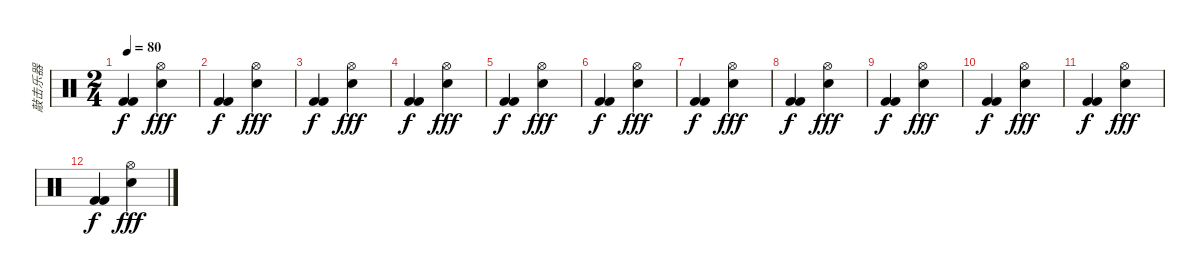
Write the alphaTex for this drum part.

\track ("敲击乐器" "敲击乐器") {instrument percussion}
\staff {score}
\articulation defaults
\ts (2 4)
\tempo 80
\clef neutral
\ks c
("Kick (hit) 2" "Kick (hit) 2").4{dy f} ("Hi-Hat (open)" "Snare (hit) 2").4{dy fff} |
("Kick (hit) 2" "Kick (hit) 2").4{dy f} ("Hi-Hat (open)" "Snare (hit) 2").4{dy fff} |
("Kick (hit) 2" "Kick (hit) 2").4{dy f} ("Hi-Hat (open)" "Snare (hit) 2").4{dy fff} |
("Kick (hit) 2" "Kick (hit) 2").4{dy f} ("Hi-Hat (open)" "Snare (hit) 2").4{dy fff} |
("Kick (hit) 2" "Kick (hit) 2").4{dy f} ("Hi-Hat (open)" "Snare (hit) 2").4{dy fff} |
("Kick (hit) 2" "Kick (hit) 2").4{dy f} ("Hi-Hat (open)" "Snare (hit) 2").4{dy fff} |
("Kick (hit) 2" "Kick (hit) 2").4{dy f} ("Hi-Hat (open)" "Snare (hit) 2").4{dy fff} |
("Kick (hit) 2" "Kick (hit) 2").4{dy f} ("Hi-Hat (open)" "Snare (hit) 2").4{dy fff} |
("Kick (hit) 2" "Kick (hit) 2").4{dy f} ("Hi-Hat (open)" "Snare (hit) 2").4{dy fff} |
("Kick (hit) 2" "Kick (hit) 2").4{dy f} ("Hi-Hat (open)" "Snare (hit) 2").4{dy fff} |
("Kick (hit) 2" "Kick (hit) 2").4{dy f} ("Hi-Hat (open)" "Snare (hit) 2").4{dy fff} |
("Kick (hit) 2" "Kick (hit) 2").4{dy f} ("Hi-Hat (open)" "Snare (hit) 2").4{dy fff}
